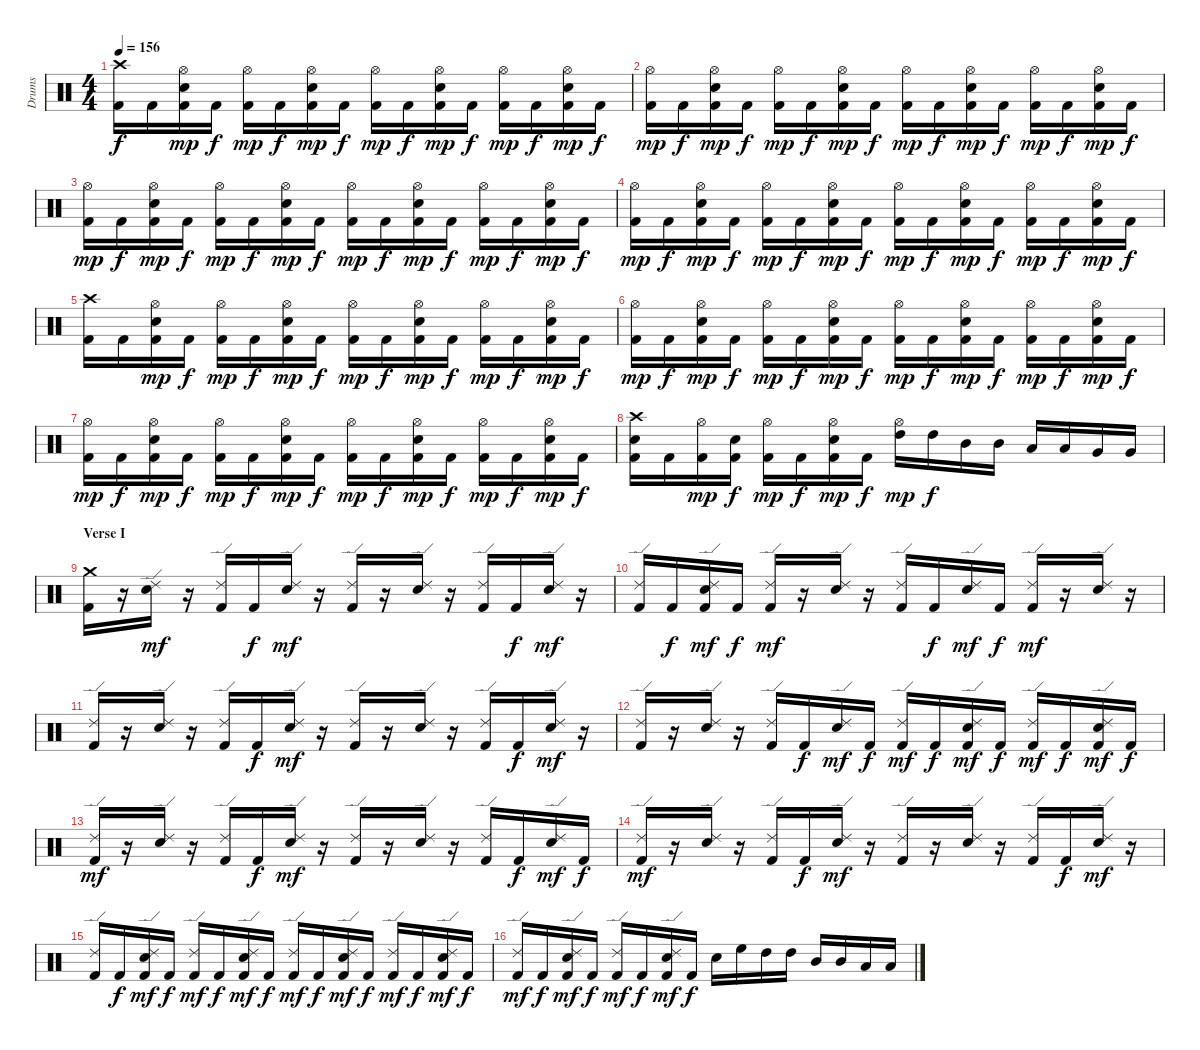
\track ("Drums" "Drums") {instrument percussion}
\staff {score}
\articulation defaults
\ts (4 4)
\section ("" "")
\tempo 156
\clef neutral
\ks c
("Kick (hit) 2" "Crash high (hit)").16{dy f} "Kick (hit) 2".16 ("Kick (hit) 2" "Snare (hit) 2" "Hi-Hat (open)").16{dy mp} "Kick (hit) 2".16{dy f} ("Kick (hit) 2" "Hi-Hat (open)").16{dy mp} "Kick (hit) 2".16{dy f} ("Kick (hit) 2" "Snare (hit) 2" "Hi-Hat (open)").16{dy mp} "Kick (hit) 2".16{dy f} ("Kick (hit) 2" "Hi-Hat (open)").16{dy mp} "Kick (hit) 2".16{dy f} ("Kick (hit) 2" "Snare (hit) 2" "Hi-Hat (open)").16{dy mp} "Kick (hit) 2".16{dy f} ("Kick (hit) 2" "Hi-Hat (open)").16{dy mp} "Kick (hit) 2".16{dy f} ("Kick (hit) 2" "Snare (hit) 2" "Hi-Hat (open)").16{dy mp} "Kick (hit) 2".16{dy f} |
("Kick (hit) 2" "Hi-Hat (open)").16{dy mp} "Kick (hit) 2".16{dy f} ("Kick (hit) 2" "Snare (hit) 2" "Hi-Hat (open)").16{dy mp} "Kick (hit) 2".16{dy f} ("Kick (hit) 2" "Hi-Hat (open)").16{dy mp} "Kick (hit) 2".16{dy f} ("Kick (hit) 2" "Snare (hit) 2" "Hi-Hat (open)").16{dy mp} "Kick (hit) 2".16{dy f} ("Kick (hit) 2" "Hi-Hat (open)").16{dy mp} "Kick (hit) 2".16{dy f} ("Kick (hit) 2" "Snare (hit) 2" "Hi-Hat (open)").16{dy mp} "Kick (hit) 2".16{dy f} ("Kick (hit) 2" "Hi-Hat (open)").16{dy mp} "Kick (hit) 2".16{dy f} ("Kick (hit) 2" "Snare (hit) 2" "Hi-Hat (open)").16{dy mp} "Kick (hit) 2".16{dy f} |
("Kick (hit) 2" "Hi-Hat (open)").16{dy mp} "Kick (hit) 2".16{dy f} ("Kick (hit) 2" "Snare (hit) 2" "Hi-Hat (open)").16{dy mp} "Kick (hit) 2".16{dy f} ("Kick (hit) 2" "Hi-Hat (open)").16{dy mp} "Kick (hit) 2".16{dy f} ("Kick (hit) 2" "Snare (hit) 2" "Hi-Hat (open)").16{dy mp} "Kick (hit) 2".16{dy f} ("Kick (hit) 2" "Hi-Hat (open)").16{dy mp} "Kick (hit) 2".16{dy f} ("Kick (hit) 2" "Snare (hit) 2" "Hi-Hat (open)").16{dy mp} "Kick (hit) 2".16{dy f} ("Kick (hit) 2" "Hi-Hat (open)").16{dy mp} "Kick (hit) 2".16{dy f} ("Kick (hit) 2" "Snare (hit) 2" "Hi-Hat (open)").16{dy mp} "Kick (hit) 2".16{dy f} |
("Kick (hit) 2" "Hi-Hat (open)").16{dy mp} "Kick (hit) 2".16{dy f} ("Kick (hit) 2" "Snare (hit) 2" "Hi-Hat (open)").16{dy mp} "Kick (hit) 2".16{dy f} ("Kick (hit) 2" "Hi-Hat (open)").16{dy mp} "Kick (hit) 2".16{dy f} ("Kick (hit) 2" "Snare (hit) 2" "Hi-Hat (open)").16{dy mp} "Kick (hit) 2".16{dy f} ("Kick (hit) 2" "Hi-Hat (open)").16{dy mp} "Kick (hit) 2".16{dy f} ("Kick (hit) 2" "Snare (hit) 2" "Hi-Hat (open)").16{dy mp} "Kick (hit) 2".16{dy f} ("Kick (hit) 2" "Hi-Hat (open)").16{dy mp} "Kick (hit) 2".16{dy f} ("Kick (hit) 2" "Snare (hit) 2" "Hi-Hat (open)").16{dy mp} "Kick (hit) 2".16{dy f} |
("Kick (hit) 2" "Crash high (hit)").16 "Kick (hit) 2".16 ("Kick (hit) 2" "Snare (hit) 2" "Hi-Hat (open)").16{dy mp} "Kick (hit) 2".16{dy f} ("Kick (hit) 2" "Hi-Hat (open)").16{dy mp} "Kick (hit) 2".16{dy f} ("Kick (hit) 2" "Snare (hit) 2" "Hi-Hat (open)").16{dy mp} "Kick (hit) 2".16{dy f} ("Kick (hit) 2" "Hi-Hat (open)").16{dy mp} "Kick (hit) 2".16{dy f} ("Kick (hit) 2" "Snare (hit) 2" "Hi-Hat (open)").16{dy mp} "Kick (hit) 2".16{dy f} ("Kick (hit) 2" "Hi-Hat (open)").16{dy mp} "Kick (hit) 2".16{dy f} ("Kick (hit) 2" "Snare (hit) 2" "Hi-Hat (open)").16{dy mp} "Kick (hit) 2".16{dy f} |
("Kick (hit) 2" "Hi-Hat (open)").16{dy mp} "Kick (hit) 2".16{dy f} ("Kick (hit) 2" "Snare (hit) 2" "Hi-Hat (open)").16{dy mp} "Kick (hit) 2".16{dy f} ("Kick (hit) 2" "Hi-Hat (open)").16{dy mp} "Kick (hit) 2".16{dy f} ("Kick (hit) 2" "Snare (hit) 2" "Hi-Hat (open)").16{dy mp} "Kick (hit) 2".16{dy f} ("Kick (hit) 2" "Hi-Hat (open)").16{dy mp} "Kick (hit) 2".16{dy f} ("Kick (hit) 2" "Snare (hit) 2" "Hi-Hat (open)").16{dy mp} "Kick (hit) 2".16{dy f} ("Kick (hit) 2" "Hi-Hat (open)").16{dy mp} "Kick (hit) 2".16{dy f} ("Kick (hit) 2" "Snare (hit) 2" "Hi-Hat (open)").16{dy mp} "Kick (hit) 2".16{dy f} |
("Kick (hit) 2" "Hi-Hat (open)").16{dy mp} "Kick (hit) 2".16{dy f} ("Kick (hit) 2" "Snare (hit) 2" "Hi-Hat (open)").16{dy mp} "Kick (hit) 2".16{dy f} ("Kick (hit) 2" "Hi-Hat (open)").16{dy mp} "Kick (hit) 2".16{dy f} ("Kick (hit) 2" "Snare (hit) 2" "Hi-Hat (open)").16{dy mp} "Kick (hit) 2".16{dy f} ("Kick (hit) 2" "Hi-Hat (open)").16{dy mp} "Kick (hit) 2".16{dy f} ("Kick (hit) 2" "Snare (hit) 2" "Hi-Hat (open)").16{dy mp} "Kick (hit) 2".16{dy f} ("Kick (hit) 2" "Hi-Hat (open)").16{dy mp} "Kick (hit) 2".16{dy f} ("Kick (hit) 2" "Snare (hit) 2" "Hi-Hat (open)").16{dy mp} "Kick (hit) 2".16{dy f} |
("Snare (hit) 2" "Kick (hit) 2" "Crash high (hit)").16 "Kick (hit) 2".16 ("Kick (hit) 2" "Hi-Hat (open)").16{dy mp} ("Snare (hit) 2" "Kick (hit) 2").16{dy f} ("Kick (hit) 2" "Hi-Hat (open)").16{dy mp} "Kick (hit) 2".16{dy f} ("Kick (hit) 2" "Snare (hit) 2" "Hi-Hat (open)").16{dy mp} "Kick (hit) 2".16{dy f} ("High Tom (hit)" "Hi-Hat (open)").16{dy mp} "High Tom (hit)".16{dy f} "Mid Tom (hit)".16 "Mid Tom (hit)".16 "Low Tom (hit)".16 "Low Tom (hit)".16 "Very Low Tom (hit)".16 "Very Low Tom (hit)".16 |
\section ("" "Verse I")
("Kick (hit) 2" "Crash medium (hit)").16 r.16 ("Snare (hit) 2" "Ride (edge) 2").16{dy mf} r.16 ("Kick (hit) 2" "Ride (edge) 2").16 "Kick (hit) 2".16{dy f} ("Snare (hit) 2" "Ride (edge) 2").16{dy mf} r.16 ("Kick (hit) 2" "Ride (edge) 2").16 r.16 ("Snare (hit) 2" "Ride (edge) 2").16 r.16 ("Kick (hit) 2" "Ride (edge) 2").16 "Kick (hit) 2".16{dy f} ("Snare (hit) 2" "Ride (edge) 2").16{dy mf} r.16 |
("Kick (hit) 2" "Ride (edge) 2").16 "Kick (hit) 2".16{dy f} ("Snare (hit) 2" "Kick (hit) 2" "Ride (edge) 2").16{dy mf} "Kick (hit) 2".16{dy f} ("Kick (hit) 2" "Ride (edge) 2").16{dy mf} r.16 ("Snare (hit) 2" "Ride (edge) 2").16 r.16 ("Kick (hit) 2" "Ride (edge) 2").16 "Kick (hit) 2".16{dy f} ("Snare (hit) 2" "Ride (edge) 2").16{dy mf} "Kick (hit) 2".16{dy f} ("Kick (hit) 2" "Ride (edge) 2").16{dy mf} r.16 ("Snare (hit) 2" "Ride (edge) 2").16 r.16 |
("Kick (hit) 2" "Ride (edge) 2").16 r.16 ("Snare (hit) 2" "Ride (edge) 2").16 r.16 ("Kick (hit) 2" "Ride (edge) 2").16 "Kick (hit) 2".16{dy f} ("Snare (hit) 2" "Ride (edge) 2").16{dy mf} r.16 ("Kick (hit) 2" "Ride (edge) 2").16 r.16 ("Snare (hit) 2" "Ride (edge) 2").16 r.16 ("Kick (hit) 2" "Ride (edge) 2").16 "Kick (hit) 2".16{dy f} ("Snare (hit) 2" "Ride (edge) 2").16{dy mf} r.16 |
("Kick (hit) 2" "Ride (edge) 2").16 r.16 ("Snare (hit) 2" "Ride (edge) 2").16 r.16 ("Kick (hit) 2" "Ride (edge) 2").16 "Kick (hit) 2".16{dy f} ("Snare (hit) 2" "Ride (edge) 2").16{dy mf} "Kick (hit) 2".16{dy f} ("Kick (hit) 2" "Ride (edge) 2").16{dy mf} "Kick (hit) 2".16{dy f} ("Snare (hit) 2" "Kick (hit) 2" "Ride (edge) 2").16{dy mf} "Kick (hit) 2".16{dy f} ("Kick (hit) 2" "Ride (edge) 2").16{dy mf} "Kick (hit) 2".16{dy f} ("Snare (hit) 2" "Kick (hit) 2" "Ride (edge) 2").16{dy mf} "Kick (hit) 2".16{dy f} |
("Kick (hit) 2" "Ride (edge) 2").16{dy mf} r.16 ("Snare (hit) 2" "Ride (edge) 2").16 r.16 ("Kick (hit) 2" "Ride (edge) 2").16 "Kick (hit) 2".16{dy f} ("Snare (hit) 2" "Ride (edge) 2").16{dy mf} r.16 ("Kick (hit) 2" "Ride (edge) 2").16 r.16 ("Snare (hit) 2" "Ride (edge) 2").16 r.16 ("Kick (hit) 2" "Ride (edge) 2").16 "Kick (hit) 2".16{dy f} ("Snare (hit) 2" "Ride (edge) 2").16{dy mf} "Kick (hit) 2".16{dy f} |
("Kick (hit) 2" "Ride (edge) 2").16{dy mf} r.16 ("Snare (hit) 2" "Ride (edge) 2").16 r.16 ("Kick (hit) 2" "Ride (edge) 2").16 "Kick (hit) 2".16{dy f} ("Snare (hit) 2" "Ride (edge) 2").16{dy mf} r.16 ("Kick (hit) 2" "Ride (edge) 2").16 r.16 ("Snare (hit) 2" "Ride (edge) 2").16 r.16 ("Kick (hit) 2" "Ride (edge) 2").16 "Kick (hit) 2".16{dy f} ("Snare (hit) 2" "Ride (edge) 2").16{dy mf} r.16 |
("Kick (hit) 2" "Ride (edge) 2").16 "Kick (hit) 2".16{dy f} ("Snare (hit) 2" "Kick (hit) 2" "Ride (edge) 2").16{dy mf} "Kick (hit) 2".16{dy f} ("Kick (hit) 2" "Ride (edge) 2").16{dy mf} "Kick (hit) 2".16{dy f} ("Snare (hit) 2" "Kick (hit) 2" "Ride (edge) 2").16{dy mf} "Kick (hit) 2".16{dy f} ("Kick (hit) 2" "Ride (edge) 2").16{dy mf} "Kick (hit) 2".16{dy f} ("Snare (hit) 2" "Kick (hit) 2" "Ride (edge) 2").16{dy mf} "Kick (hit) 2".16{dy f} ("Kick (hit) 2" "Ride (edge) 2").16{dy mf} "Kick (hit) 2".16{dy f} ("Snare (hit) 2" "Kick (hit) 2" "Ride (edge) 2").16{dy mf} "Kick (hit) 2".16{dy f} |
("Kick (hit) 2" "Ride (edge) 2").16{dy mf} "Kick (hit) 2".16{dy f} ("Snare (hit) 2" "Kick (hit) 2" "Ride (edge) 2").16{dy mf} "Kick (hit) 2".16{dy f} ("Kick (hit) 2" "Ride (edge) 2").16{dy mf} "Kick (hit) 2".16{dy f} ("Snare (hit) 2" "Kick (hit) 2" "Ride (edge) 2").16{dy mf} "Kick (hit) 2".16{dy f} "Snare (hit) 2".16 "High Floor Tom (hit)".16 "High Tom (hit)".16 "High Tom (hit)".16 "Mid Tom (hit)".16 "Mid Tom (hit)".16 "Low Tom (hit)".16 "Low Tom (hit)".16
